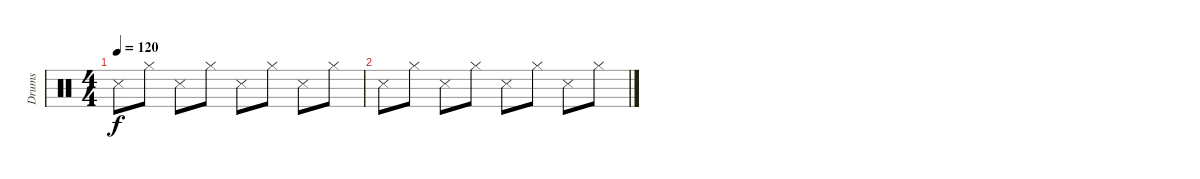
\track ("Drums" "Drums") {instrument percussion}
\staff {score}
\articulation defaults
\ts (4 4)
\tempo 120
\clef neutral
\ks c "Snare (side stick) 3".8{dy f} "Hi-Hat (closed)".8 "Snare (side stick) 3".8 "Hi-Hat (closed)".8 "Snare (side stick) 3".8 "Hi-Hat (closed)".8 "Snare (side stick) 3".8 "Hi-Hat (closed)".8
|
"Snare (side stick) 3".8 "Hi-Hat (closed)".8 "Snare (side stick) 3".8 "Hi-Hat (closed)".8 "Snare (side stick) 3".8 "Hi-Hat (closed)".8 "Snare (side stick) 3".8 "Hi-Hat (closed)".8
